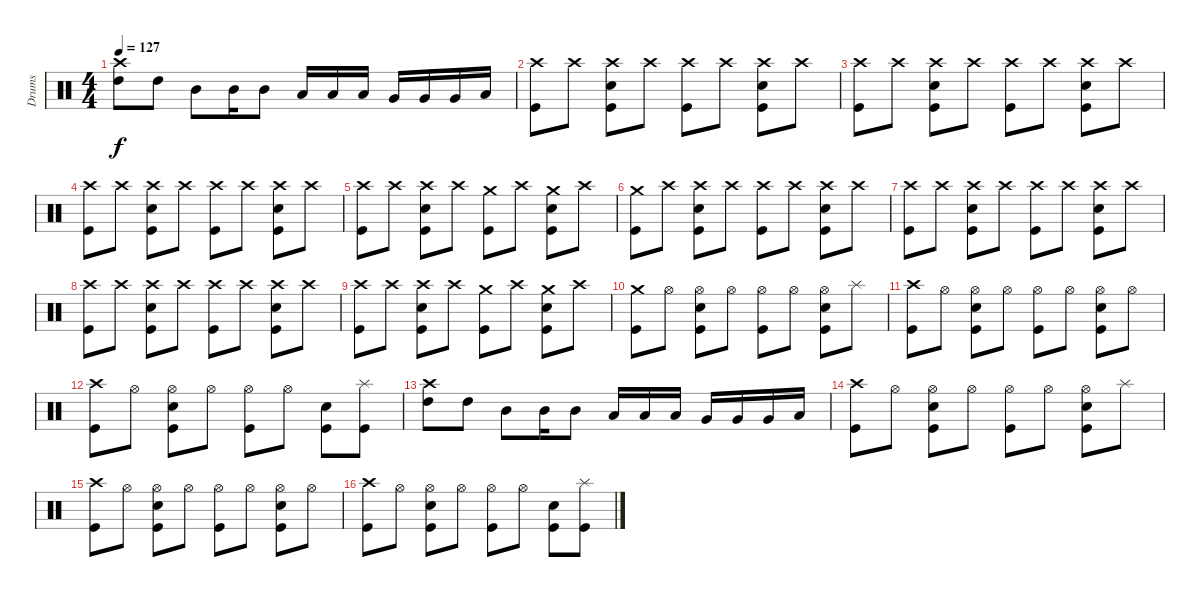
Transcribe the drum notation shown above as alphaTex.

\track ("Drums" "Drums") {instrument percussion}
\staff {score}
\articulation defaults
\ts (4 4)
\tempo 127
\clef neutral
\ks c
("Crash high (hit)" "High Tom (hit)").8{dy f} "High Tom (hit)".8 "Mid Tom (hit)".8 "Mid Tom (hit)".16 "Mid Tom (hit)".8 "Low Tom (hit)".16 "Low Tom (hit)".16 "Low Tom (hit)".16 "Very Low Tom (hit)".16 "Very Low Tom (hit)".16 "Very Low Tom (hit)".16 "Low Floor Tom (hit)".16 |
("Crash high (hit)" "Kick (hit)").8 "Crash high (hit)".8 ("Crash high (hit)" "Electric Snare (hit)" "Kick (hit)").8 "Crash high (hit)".8 ("Crash high (hit)" "Kick (hit)").8 "Crash high (hit)".8 ("Crash high (hit)" "Electric Snare (hit)" "Kick (hit)").8 "Crash high (hit)".8 |
("Crash high (hit)" "Kick (hit)").8 "Crash high (hit)".8 ("Crash high (hit)" "Electric Snare (hit)" "Kick (hit)").8 "Crash high (hit)".8 ("Crash high (hit)" "Kick (hit)").8 "Crash high (hit)".8 ("Crash high (hit)" "Electric Snare (hit)" "Kick (hit)").8 "Crash high (hit)".8 |
("Crash high (hit)" "Kick (hit)").8 "Crash high (hit)".8 ("Crash high (hit)" "Electric Snare (hit)" "Kick (hit)").8 "Crash high (hit)".8 ("Crash high (hit)" "Kick (hit)").8 "Crash high (hit)".8 ("Crash high (hit)" "Electric Snare (hit)" "Kick (hit)").8 "Crash high (hit)".8 |
("Crash high (hit)" "Kick (hit)").8 "Crash high (hit)".8 ("Crash high (hit)" "Electric Snare (hit)" "Kick (hit)").8 "Crash high (hit)".8 ("Crash medium (hit)" "Kick (hit)").8 "Crash high (hit)".8 ("Crash medium (hit)" "Electric Snare (hit)" "Kick (hit)").8 "Crash high (hit)".8 |
("Crash medium (hit)" "Kick (hit)").8 "Crash high (hit)".8 ("Crash high (hit)" "Electric Snare (hit)" "Kick (hit)").8 "Crash high (hit)".8 ("Crash high (hit)" "Kick (hit)").8 "Crash high (hit)".8 ("Crash high (hit)" "Electric Snare (hit)" "Kick (hit)").8 "Crash high (hit)".8 |
("Crash high (hit)" "Kick (hit)").8 "Crash high (hit)".8 ("Crash high (hit)" "Electric Snare (hit)" "Kick (hit)").8 "Crash high (hit)".8 ("Crash high (hit)" "Kick (hit)").8 "Crash high (hit)".8 ("Crash high (hit)" "Electric Snare (hit)" "Kick (hit)").8 "Crash high (hit)".8 |
("Crash high (hit)" "Kick (hit)").8 "Crash high (hit)".8 ("Crash high (hit)" "Electric Snare (hit)" "Kick (hit)").8 "Crash high (hit)".8 ("Crash high (hit)" "Kick (hit)").8 "Crash high (hit)".8 ("Crash high (hit)" "Electric Snare (hit)" "Kick (hit)").8 "Crash high (hit)".8 |
("Crash high (hit)" "Kick (hit)").8 "Crash high (hit)".8 ("Crash high (hit)" "Electric Snare (hit)" "Kick (hit)").8 "Crash high (hit)".8 ("Crash medium (hit)" "Kick (hit)").8 "Crash high (hit)".8 ("Crash medium (hit)" "Electric Snare (hit)" "Kick (hit)").8 "Crash high (hit)".8 |
("Crash medium (hit)" "Kick (hit)").8 "Hi-Hat (open)".8 ("Hi-Hat (open)" "Electric Snare (hit)" "Kick (hit)").8 "Hi-Hat (open)".8 ("Hi-Hat (open)" "Kick (hit)").8 "Hi-Hat (open)".8 ("Hi-Hat (open)" "Electric Snare (hit)" "Kick (hit)").8 "Splash (hit)".8 |
("Crash high (hit)" "Kick (hit)").8 "Hi-Hat (open)".8 ("Hi-Hat (open)" "Electric Snare (hit)" "Kick (hit)").8 "Hi-Hat (open)".8 ("Hi-Hat (open)" "Kick (hit)").8 "Hi-Hat (open)".8 ("Hi-Hat (open)" "Electric Snare (hit)" "Kick (hit)").8 "Hi-Hat (open)".8 |
("Crash high (hit)" "Kick (hit)").8 "Hi-Hat (open)".8 ("Hi-Hat (open)" "Electric Snare (hit)" "Kick (hit)").8 "Hi-Hat (open)".8 ("Hi-Hat (open)" "Kick (hit)").8 "Hi-Hat (open)".8 ("Electric Snare (hit)" "Kick (hit)").8 ("Splash (hit)" "Kick (hit)").8 |
("Crash high (hit)" "High Tom (hit)").8 "High Tom (hit)".8 "Mid Tom (hit)".8 "Mid Tom (hit)".16 "Mid Tom (hit)".8 "Low Tom (hit)".16 "Low Tom (hit)".16 "Low Tom (hit)".16 "Very Low Tom (hit)".16 "Very Low Tom (hit)".16 "Very Low Tom (hit)".16 "Low Floor Tom (hit)".16 |
("Crash high (hit)" "Kick (hit)").8 "Hi-Hat (open)".8 ("Hi-Hat (open)" "Electric Snare (hit)" "Kick (hit)").8 "Hi-Hat (open)".8 ("Hi-Hat (open)" "Kick (hit)").8 "Hi-Hat (open)".8 ("Hi-Hat (open)" "Electric Snare (hit)" "Kick (hit)").8 "Splash (hit)".8 |
("Crash high (hit)" "Kick (hit)").8 "Hi-Hat (open)".8 ("Hi-Hat (open)" "Electric Snare (hit)" "Kick (hit)").8 "Hi-Hat (open)".8 ("Hi-Hat (open)" "Kick (hit)").8 "Hi-Hat (open)".8 ("Hi-Hat (open)" "Electric Snare (hit)" "Kick (hit)").8 "Hi-Hat (open)".8 |
("Crash high (hit)" "Kick (hit)").8 "Hi-Hat (open)".8 ("Hi-Hat (open)" "Electric Snare (hit)" "Kick (hit)").8 "Hi-Hat (open)".8 ("Hi-Hat (open)" "Kick (hit)").8 "Hi-Hat (open)".8 ("Electric Snare (hit)" "Kick (hit)").8 ("Splash (hit)" "Kick (hit)").8
